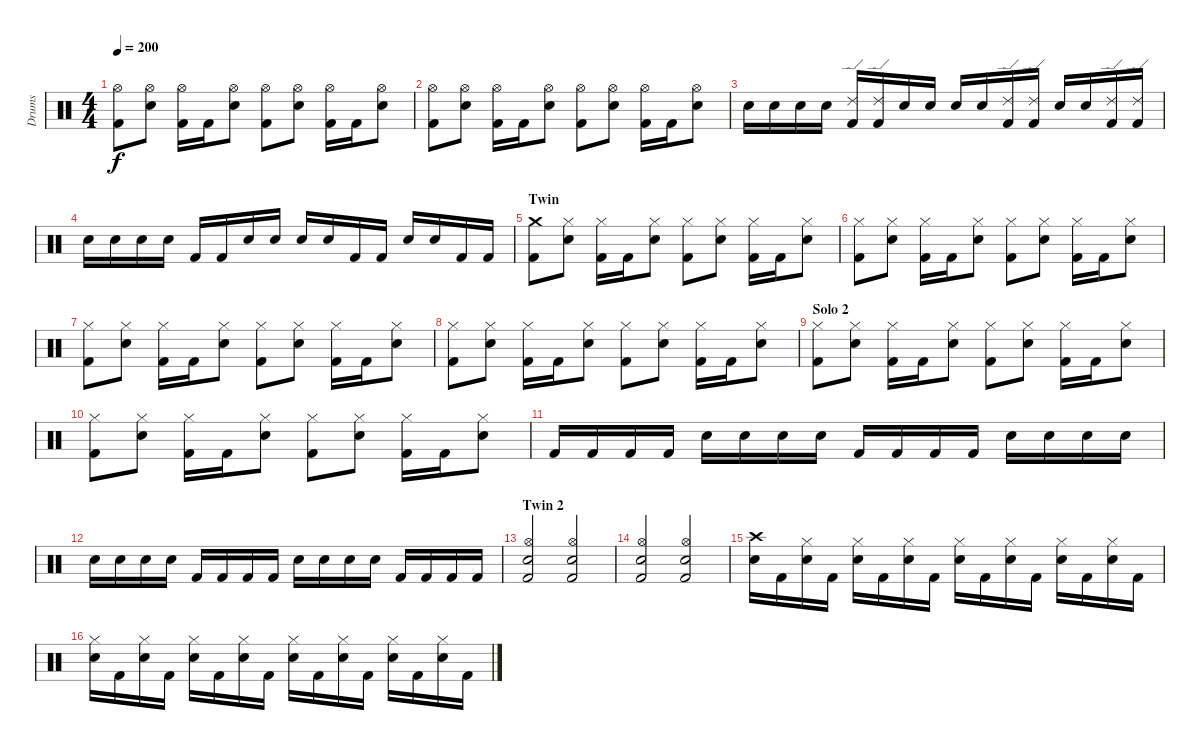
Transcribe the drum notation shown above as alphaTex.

\track ("Drums" "Drums") {instrument percussion}
\staff {score}
\articulation defaults
\ts (4 4)
\tempo 200
\clef neutral
\ks c
("Kick (hit) 2" "Hi-Hat (open)").8{dy f} ("Snare (hit) 2" "Hi-Hat (open)").8 ("Kick (hit) 2" "Hi-Hat (open)").16 "Kick (hit) 2".16 ("Snare (hit) 2" "Hi-Hat (open)").8 ("Kick (hit) 2" "Hi-Hat (open)").8 ("Snare (hit) 2" "Hi-Hat (open)").8 ("Kick (hit) 2" "Hi-Hat (open)").16 "Kick (hit) 2".16 ("Snare (hit) 2" "Hi-Hat (open)").8 |
("Kick (hit) 2" "Hi-Hat (open)").8 ("Snare (hit) 2" "Hi-Hat (open)").8 ("Kick (hit) 2" "Hi-Hat (open)").16 "Kick (hit) 2".16 ("Snare (hit) 2" "Hi-Hat (open)").8 ("Kick (hit) 2" "Hi-Hat (open)").8 ("Snare (hit) 2" "Hi-Hat (open)").8 ("Kick (hit) 2" "Hi-Hat (open)").16 "Kick (hit) 2".16 ("Snare (hit) 2" "Hi-Hat (open)").8 |
"Snare (hit) 2".16 "Snare (hit) 2".16 "Snare (hit) 2".16 "Snare (hit) 2".16 ("Kick (hit) 2" "Ride (edge) 2").16 ("Kick (hit) 2" "Ride (edge) 2").16 "Snare (hit) 2".16 "Snare (hit) 2".16 "Snare (hit) 2".16 "Snare (hit) 2".16 ("Kick (hit) 2" "Ride (edge) 2").16 ("Kick (hit) 2" "Ride (edge) 2").16 "Snare (hit) 2".16 "Snare (hit) 2".16 ("Kick (hit) 2" "Ride (edge) 2").16 ("Kick (hit) 2" "Ride (edge) 2").16 |
"Snare (hit) 2".16 "Snare (hit) 2".16 "Snare (hit) 2".16 "Snare (hit) 2".16 "Kick (hit) 2".16 "Kick (hit) 2".16 "Snare (hit) 2".16 "Snare (hit) 2".16 "Snare (hit) 2".16 "Snare (hit) 2".16 "Kick (hit) 2".16 "Kick (hit) 2".16 "Snare (hit) 2".16 "Snare (hit) 2".16 "Kick (hit) 2".16 "Kick (hit) 2".16 |
\section ("" "Twin")
("Kick (hit) 2" "Crash medium (hit)").8 ("Snare (hit) 2" "Hi-Hat (closed)").8 ("Kick (hit) 2" "Hi-Hat (closed)").16 "Kick (hit) 2".16 ("Snare (hit) 2" "Hi-Hat (closed)").8 ("Kick (hit) 2" "Hi-Hat (closed)").8 ("Snare (hit) 2" "Hi-Hat (closed)").8 ("Kick (hit) 2" "Hi-Hat (closed)").16 "Kick (hit) 2".16 ("Snare (hit) 2" "Hi-Hat (closed)").8 |
("Kick (hit) 2" "Hi-Hat (closed)").8 ("Snare (hit) 2" "Hi-Hat (closed)").8 ("Kick (hit) 2" "Hi-Hat (closed)").16 "Kick (hit) 2".16 ("Snare (hit) 2" "Hi-Hat (closed)").8 ("Kick (hit) 2" "Hi-Hat (closed)").8 ("Snare (hit) 2" "Hi-Hat (closed)").8 ("Kick (hit) 2" "Hi-Hat (closed)").16 "Kick (hit) 2".16 ("Snare (hit) 2" "Hi-Hat (closed)").8 |
("Kick (hit) 2" "Hi-Hat (closed)").8 ("Snare (hit) 2" "Hi-Hat (closed)").8 ("Kick (hit) 2" "Hi-Hat (closed)").16 "Kick (hit) 2".16 ("Snare (hit) 2" "Hi-Hat (closed)").8 ("Kick (hit) 2" "Hi-Hat (closed)").8 ("Snare (hit) 2" "Hi-Hat (closed)").8 ("Kick (hit) 2" "Hi-Hat (closed)").16 "Kick (hit) 2".16 ("Snare (hit) 2" "Hi-Hat (closed)").8 |
("Kick (hit) 2" "Hi-Hat (closed)").8 ("Snare (hit) 2" "Hi-Hat (closed)").8 ("Kick (hit) 2" "Hi-Hat (closed)").16 "Kick (hit) 2".16 ("Snare (hit) 2" "Hi-Hat (closed)").8 ("Kick (hit) 2" "Hi-Hat (closed)").8 ("Snare (hit) 2" "Hi-Hat (closed)").8 ("Kick (hit) 2" "Hi-Hat (closed)").16 "Kick (hit) 2".16 ("Snare (hit) 2" "Hi-Hat (closed)").8 |
\section ("" "Solo 2")
("Kick (hit) 2" "Hi-Hat (closed)").8 ("Snare (hit) 2" "Hi-Hat (closed)").8 ("Kick (hit) 2" "Hi-Hat (closed)").16 "Kick (hit) 2".16 ("Snare (hit) 2" "Hi-Hat (closed)").8 ("Kick (hit) 2" "Hi-Hat (closed)").8 ("Snare (hit) 2" "Hi-Hat (closed)").8 ("Kick (hit) 2" "Hi-Hat (closed)").16 "Kick (hit) 2".16 ("Snare (hit) 2" "Hi-Hat (closed)").8 |
("Kick (hit) 2" "Hi-Hat (closed)").8 ("Snare (hit) 2" "Hi-Hat (closed)").8 ("Kick (hit) 2" "Hi-Hat (closed)").16 "Kick (hit) 2".16 ("Snare (hit) 2" "Hi-Hat (closed)").8 ("Kick (hit) 2" "Hi-Hat (closed)").8 ("Snare (hit) 2" "Hi-Hat (closed)").8 ("Kick (hit) 2" "Hi-Hat (closed)").16 "Kick (hit) 2".16 ("Snare (hit) 2" "Hi-Hat (closed)").8 |
"Kick (hit) 2".16 "Kick (hit) 2".16 "Kick (hit) 2".16 "Kick (hit) 2".16 "Snare (hit) 2".16 "Snare (hit) 2".16 "Snare (hit) 2".16 "Snare (hit) 2".16 "Kick (hit) 2".16 "Kick (hit) 2".16 "Kick (hit) 2".16 "Kick (hit) 2".16 "Snare (hit) 2".16 "Snare (hit) 2".16 "Snare (hit) 2".16 "Snare (hit) 2".16 |
"Snare (hit) 2".16 "Snare (hit) 2".16 "Snare (hit) 2".16 "Snare (hit) 2".16 "Kick (hit) 2".16 "Kick (hit) 2".16 "Kick (hit) 2".16 "Kick (hit) 2".16 "Snare (hit) 2".16 "Snare (hit) 2".16 "Snare (hit) 2".16 "Snare (hit) 2".16 "Kick (hit) 2".16 "Kick (hit) 2".16 "Kick (hit) 2".16 "Kick (hit) 2".16 |
\section ("" "Twin 2")
("Kick (hit) 2" "Snare (hit) 2" "Hi-Hat (open)").2 ("Kick (hit) 2" "Snare (hit) 2" "Hi-Hat (open)").2 |
("Kick (hit) 2" "Snare (hit) 2" "Hi-Hat (open)").2 ("Kick (hit) 2" "Snare (hit) 2" "Hi-Hat (open)").2 |
("Snare (hit) 2" "Crash high (hit)").16 "Kick (hit) 2".16 ("Snare (hit) 2" "Hi-Hat (closed)").16 "Kick (hit) 2".16 ("Snare (hit) 2" "Hi-Hat (closed)").16 "Kick (hit) 2".16 ("Snare (hit) 2" "Hi-Hat (closed)").16 "Kick (hit) 2".16 ("Snare (hit) 2" "Hi-Hat (closed)").16 "Kick (hit) 2".16 ("Snare (hit) 2" "Hi-Hat (closed)").16 "Kick (hit) 2".16 ("Snare (hit) 2" "Hi-Hat (closed)").16 "Kick (hit) 2".16 ("Snare (hit) 2" "Hi-Hat (closed)").16 "Kick (hit) 2".16 |
("Snare (hit) 2" "Hi-Hat (closed)").16 "Kick (hit) 2".16 ("Snare (hit) 2" "Hi-Hat (closed)").16 "Kick (hit) 2".16 ("Snare (hit) 2" "Hi-Hat (closed)").16 "Kick (hit) 2".16 ("Snare (hit) 2" "Hi-Hat (closed)").16 "Kick (hit) 2".16 ("Snare (hit) 2" "Hi-Hat (closed)").16 "Kick (hit) 2".16 ("Snare (hit) 2" "Hi-Hat (closed)").16 "Kick (hit) 2".16 ("Snare (hit) 2" "Hi-Hat (closed)").16 "Kick (hit) 2".16 ("Snare (hit) 2" "Hi-Hat (closed)").16 "Kick (hit) 2".16
